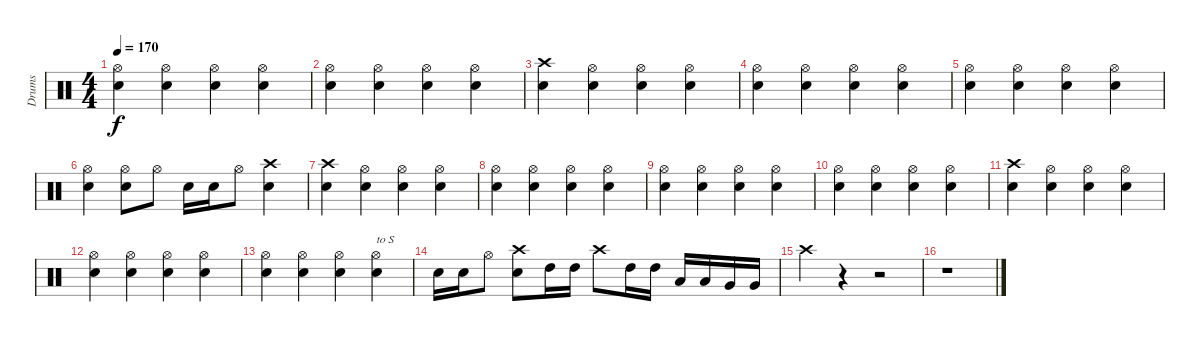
\track ("Drums" "Drums") {instrument percussion}
\staff {score}
\articulation defaults
\ts (4 4)
\tempo 170
\clef neutral
\ks c
("Hi-Hat (open)" "Snare (hit) 2").4{dy f} ("Hi-Hat (open)" "Snare (hit) 2").4 ("Hi-Hat (open)" "Snare (hit) 2").4 ("Hi-Hat (open)" "Snare (hit) 2").4 |
("Hi-Hat (open)" "Snare (hit) 2").4 ("Hi-Hat (open)" "Snare (hit) 2").4 ("Hi-Hat (open)" "Snare (hit) 2").4 ("Hi-Hat (open)" "Snare (hit) 2").4 |
("Crash high (hit)" "Snare (hit) 2").4 ("Hi-Hat (open)" "Snare (hit) 2").4 ("Hi-Hat (open)" "Snare (hit) 2").4 ("Hi-Hat (open)" "Snare (hit) 2").4 |
("Hi-Hat (open)" "Snare (hit) 2").4 ("Hi-Hat (open)" "Snare (hit) 2").4 ("Hi-Hat (open)" "Snare (hit) 2").4 ("Hi-Hat (open)" "Snare (hit) 2").4 |
("Hi-Hat (open)" "Snare (hit) 2").4 ("Hi-Hat (open)" "Snare (hit) 2").4 ("Hi-Hat (open)" "Snare (hit) 2").4 ("Hi-Hat (open)" "Snare (hit) 2").4 |
("Hi-Hat (open)" "Snare (hit) 2").4 ("Hi-Hat (open)" "Snare (hit) 2").8 "Hi-Hat (open)".8 "Snare (hit) 2".16 "Snare (hit) 2".16 "Hi-Hat (open)".8 ("Crash high (hit)" "Snare (hit) 2").4 |
("Crash high (hit)" "Snare (hit) 2").4 ("Hi-Hat (open)" "Snare (hit) 2").4 ("Hi-Hat (open)" "Snare (hit) 2").4 ("Hi-Hat (open)" "Snare (hit) 2").4 |
("Hi-Hat (open)" "Snare (hit) 2").4 ("Hi-Hat (open)" "Snare (hit) 2").4 ("Hi-Hat (open)" "Snare (hit) 2").4 ("Hi-Hat (open)" "Snare (hit) 2").4 |
("Hi-Hat (open)" "Snare (hit) 2").4 ("Hi-Hat (open)" "Snare (hit) 2").4 ("Hi-Hat (open)" "Snare (hit) 2").4 ("Hi-Hat (open)" "Snare (hit) 2").4 |
("Hi-Hat (open)" "Snare (hit) 2").4 ("Hi-Hat (open)" "Snare (hit) 2").4 ("Hi-Hat (open)" "Snare (hit) 2").4 ("Hi-Hat (open)" "Snare (hit) 2").4 |
("Crash high (hit)" "Snare (hit) 2").4 ("Hi-Hat (open)" "Snare (hit) 2").4 ("Hi-Hat (open)" "Snare (hit) 2").4 ("Hi-Hat (open)" "Snare (hit) 2").4 |
("Hi-Hat (open)" "Snare (hit) 2").4 ("Hi-Hat (open)" "Snare (hit) 2").4 ("Hi-Hat (open)" "Snare (hit) 2").4 ("Hi-Hat (open)" "Snare (hit) 2").4 |
("Hi-Hat (open)" "Snare (hit) 2").4 ("Hi-Hat (open)" "Snare (hit) 2").4 ("Hi-Hat (open)" "Snare (hit) 2").4 ("Hi-Hat (open)" "Snare (hit) 2").4{txt "to S"} |
"Snare (hit) 2".16 "Snare (hit) 2".16 "Hi-Hat (open)".8 ("Crash high (hit)" "Snare (hit) 2").8 "High Tom (hit)".16 "High Tom (hit)".16 "Crash high (hit)".8 "High Tom (hit)".16 "High Tom (hit)".16 "Low Tom (hit)".16 "Low Tom (hit)".16 "Very Low Tom (hit)".16 "Very Low Tom (hit)".16 |
"Crash high (hit)".4 r.4 r.2 |
r.1
